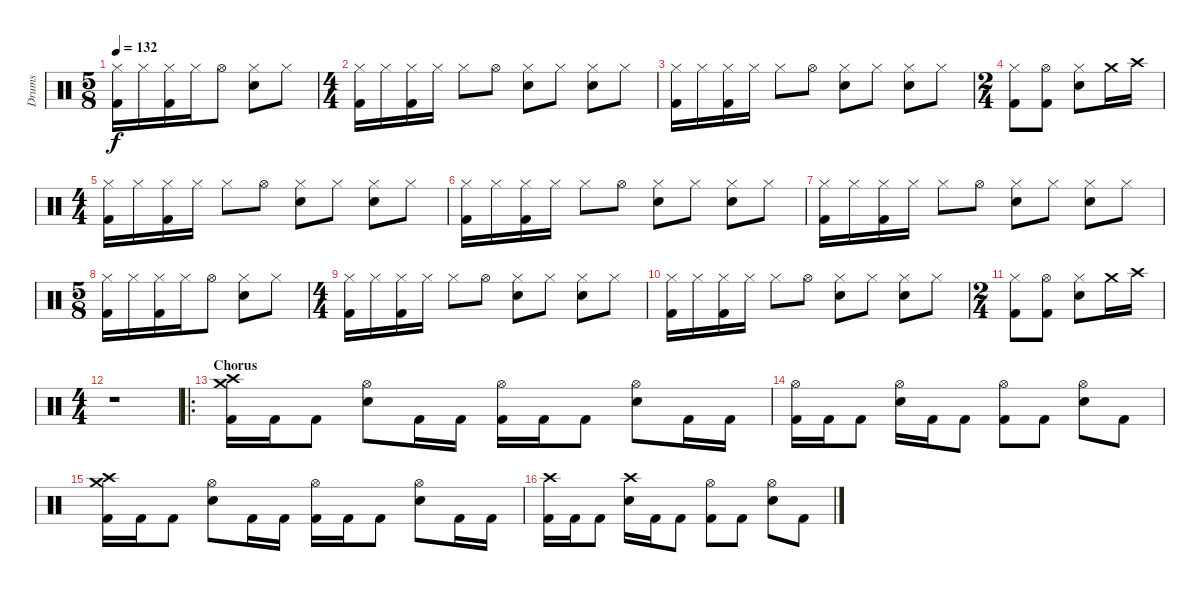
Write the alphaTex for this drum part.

\track ("Drums" "Drums") {instrument percussion}
\staff {score}
\articulation defaults
\ts (5 8)
\tempo 132
\clef neutral
\ks c
("Hi-Hat (closed)" "Kick (hit) 2").16{dy f} "Hi-Hat (closed)".16 ("Hi-Hat (closed)" "Kick (hit) 2").16 "Hi-Hat (closed)".16 "Hi-Hat (open)".8 ("Hi-Hat (closed)" "Electric Snare (hit)").8 "Hi-Hat (closed)".8 |
\ts (4 4)
("Hi-Hat (closed)" "Kick (hit) 2").16 "Hi-Hat (closed)".16 ("Hi-Hat (closed)" "Kick (hit) 2").16 "Hi-Hat (closed)".16 "Hi-Hat (closed)".8 "Hi-Hat (open)".8 ("Hi-Hat (closed)" "Electric Snare (hit)").8 "Hi-Hat (closed)".8 ("Hi-Hat (closed)" "Electric Snare (hit)").8 "Hi-Hat (closed)".8 |
("Hi-Hat (closed)" "Kick (hit) 2").16 "Hi-Hat (closed)".16 ("Hi-Hat (closed)" "Kick (hit) 2").16 "Hi-Hat (closed)".16 "Hi-Hat (closed)".8 "Hi-Hat (open)".8 ("Hi-Hat (closed)" "Electric Snare (hit)").8 "Hi-Hat (closed)".8 ("Hi-Hat (closed)" "Electric Snare (hit)").8 "Hi-Hat (closed)".8 |
\ts (2 4)
("Hi-Hat (closed)" "Kick (hit) 2").8 ("Hi-Hat (open)" "Kick (hit) 2").8 ("Hi-Hat (closed)" "Electric Snare (hit)").8 "Crash medium (hit)".16 "Crash high (hit)".16 |
\ts (4 4)
("Hi-Hat (closed)" "Kick (hit) 2").16 "Hi-Hat (closed)".16 ("Hi-Hat (closed)" "Kick (hit) 2").16 "Hi-Hat (closed)".16 "Hi-Hat (closed)".8 "Hi-Hat (open)".8 ("Hi-Hat (closed)" "Electric Snare (hit)").8 "Hi-Hat (closed)".8 ("Hi-Hat (closed)" "Electric Snare (hit)").8 "Hi-Hat (closed)".8 |
("Hi-Hat (closed)" "Kick (hit) 2").16 "Hi-Hat (closed)".16 ("Hi-Hat (closed)" "Kick (hit) 2").16 "Hi-Hat (closed)".16 "Hi-Hat (closed)".8 "Hi-Hat (open)".8 ("Hi-Hat (closed)" "Electric Snare (hit)").8 "Hi-Hat (closed)".8 ("Hi-Hat (closed)" "Electric Snare (hit)").8 "Hi-Hat (closed)".8 |
("Hi-Hat (closed)" "Kick (hit) 2").16 "Hi-Hat (closed)".16 ("Hi-Hat (closed)" "Kick (hit) 2").16 "Hi-Hat (closed)".16 "Hi-Hat (closed)".8 "Hi-Hat (open)".8 ("Hi-Hat (closed)" "Electric Snare (hit)").8 "Hi-Hat (closed)".8 ("Hi-Hat (closed)" "Electric Snare (hit)").8 "Hi-Hat (closed)".8 |
\ts (5 8)
("Hi-Hat (closed)" "Kick (hit) 2").16 "Hi-Hat (closed)".16 ("Hi-Hat (closed)" "Kick (hit) 2").16 "Hi-Hat (closed)".16 "Hi-Hat (open)".8 ("Hi-Hat (closed)" "Electric Snare (hit)").8 "Hi-Hat (closed)".8 |
\ts (4 4)
("Hi-Hat (closed)" "Kick (hit) 2").16 "Hi-Hat (closed)".16 ("Hi-Hat (closed)" "Kick (hit) 2").16 "Hi-Hat (closed)".16 "Hi-Hat (closed)".8 "Hi-Hat (open)".8 ("Hi-Hat (closed)" "Electric Snare (hit)").8 "Hi-Hat (closed)".8 ("Hi-Hat (closed)" "Electric Snare (hit)").8 "Hi-Hat (closed)".8 |
("Hi-Hat (closed)" "Kick (hit) 2").16 "Hi-Hat (closed)".16 ("Hi-Hat (closed)" "Kick (hit) 2").16 "Hi-Hat (closed)".16 "Hi-Hat (closed)".8 "Hi-Hat (open)".8 ("Hi-Hat (closed)" "Electric Snare (hit)").8 "Hi-Hat (closed)".8 ("Hi-Hat (closed)" "Electric Snare (hit)").8 "Hi-Hat (closed)".8 |
\ts (2 4)
("Hi-Hat (closed)" "Kick (hit) 2").8 ("Hi-Hat (open)" "Kick (hit) 2").8 ("Hi-Hat (closed)" "Electric Snare (hit)").8 "Crash medium (hit)".16 "Crash high (hit)".16 |
\ts (4 4)
r.1 |
\ro
\section ("" "Chorus")
("Crash high (hit)" "Crash medium (hit)" "Kick (hit) 2").16 "Kick (hit) 2".16 "Kick (hit) 2".8 ("Hi-Hat (open)" "Electric Snare (hit)").8 "Kick (hit) 2".16 "Kick (hit) 2".16 ("Hi-Hat (open)" "Kick (hit) 2").16 "Kick (hit) 2".16 "Kick (hit) 2".8 ("Hi-Hat (open)" "Electric Snare (hit)").8 "Kick (hit) 2".16 "Kick (hit) 2".16 |
("Hi-Hat (open)" "Kick (hit) 2").16 "Kick (hit) 2".16 "Kick (hit) 2".8 ("Hi-Hat (open)" "Electric Snare (hit)").16 "Kick (hit) 2".16 "Kick (hit) 2".8 ("Hi-Hat (open)" "Kick (hit) 2").8 "Kick (hit) 2".8 ("Hi-Hat (open)" "Electric Snare (hit)").8 "Kick (hit) 2".8 |
("Crash high (hit)" "Crash medium (hit)" "Kick (hit) 2").16 "Kick (hit) 2".16 "Kick (hit) 2".8 ("Hi-Hat (open)" "Electric Snare (hit)").8 "Kick (hit) 2".16 "Kick (hit) 2".16 ("Hi-Hat (open)" "Kick (hit) 2").16 "Kick (hit) 2".16 "Kick (hit) 2".8 ("Hi-Hat (open)" "Electric Snare (hit)").8 "Kick (hit) 2".16 "Kick (hit) 2".16 |
("Crash high (hit)" "Kick (hit) 2").16 "Kick (hit) 2".16 "Kick (hit) 2".8 ("Crash high (hit)" "Electric Snare (hit)").16 "Kick (hit) 2".16 "Kick (hit) 2".8 ("Hi-Hat (open)" "Kick (hit) 2").8 "Kick (hit) 2".8 ("Hi-Hat (open)" "Electric Snare (hit)").8 "Kick (hit) 2".8
